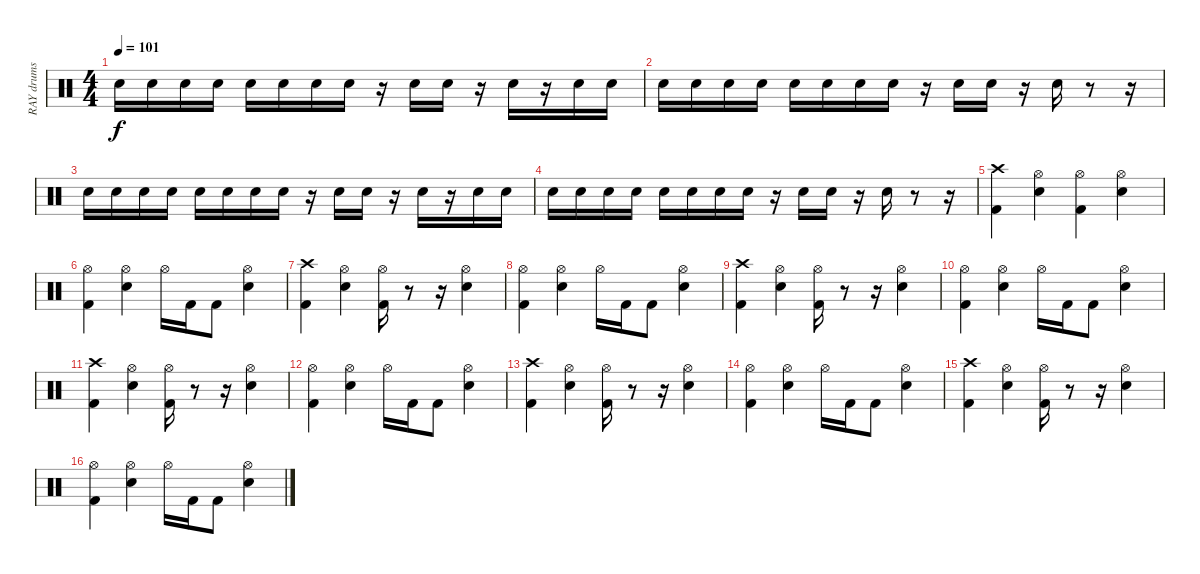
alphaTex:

\track ("RAY drums" "RAY drums") {instrument percussion}
\staff {score}
\articulation defaults
\ts (4 4)
\tempo 101
\clef neutral
\ks c "Electric Snare (hit)".16{dy f} "Electric Snare (hit)".16 "Electric Snare (hit)".16 "Electric Snare (hit)".16 "Electric Snare (hit)".16 "Electric Snare (hit)".16 "Electric Snare (hit)".16 "Electric Snare (hit)".16
r.16 "Electric Snare (hit)".16 "Electric Snare (hit)".16 r.16 "Electric Snare (hit)".16 r.16 "Electric Snare (hit)".16 "Electric Snare (hit)".16 |
"Electric Snare (hit)".16 "Electric Snare (hit)".16 "Electric Snare (hit)".16 "Electric Snare (hit)".16 "Electric Snare (hit)".16 "Electric Snare (hit)".16 "Electric Snare (hit)".16 "Electric Snare (hit)".16 r.16 "Electric Snare (hit)".16 "Electric Snare (hit)".16 r.16 "Electric Snare (hit)".16 r.8 r.16 |
"Electric Snare (hit)".16 "Electric Snare (hit)".16 "Electric Snare (hit)".16 "Electric Snare (hit)".16 "Electric Snare (hit)".16 "Electric Snare (hit)".16 "Electric Snare (hit)".16 "Electric Snare (hit)".16 r.16 "Electric Snare (hit)".16 "Electric Snare (hit)".16 r.16 "Electric Snare (hit)".16 r.16 "Electric Snare (hit)".16 "Electric Snare (hit)".16 |
"Electric Snare (hit)".16 "Electric Snare (hit)".16 "Electric Snare (hit)".16 "Electric Snare (hit)".16 "Electric Snare (hit)".16 "Electric Snare (hit)".16 "Electric Snare (hit)".16 "Electric Snare (hit)".16 r.16 "Electric Snare (hit)".16 "Electric Snare (hit)".16 r.16 "Electric Snare (hit)".16 r.8 r.16 |
("Crash high (hit)" "Kick (hit) 2").4 ("Hi-Hat (open)" "Electric Snare (hit)").4 ("Hi-Hat (open)" "Kick (hit) 2").4 ("Hi-Hat (open)" "Electric Snare (hit)").4 |
("Hi-Hat (open)" "Kick (hit) 2").4 ("Hi-Hat (open)" "Electric Snare (hit)").4 "Hi-Hat (open)".16 "Kick (hit) 2".16 "Kick (hit) 2".8 ("Hi-Hat (open)" "Electric Snare (hit)").4 |
("Kick (hit) 2" "Crash high (hit)").4 ("Electric Snare (hit)" "Hi-Hat (open)").4 ("Kick (hit) 2" "Hi-Hat (open)").16 r.8 r.16 ("Electric Snare (hit)" "Hi-Hat (open)").4 |
("Kick (hit) 2" "Hi-Hat (open)").4 ("Electric Snare (hit)" "Hi-Hat (open)").4 "Hi-Hat (open)".16 "Kick (hit) 2".16 "Kick (hit) 2".8 ("Electric Snare (hit)" "Hi-Hat (open)").4 |
("Crash high (hit)" "Kick (hit) 2").4 ("Hi-Hat (open)" "Electric Snare (hit)").4 ("Hi-Hat (open)" "Kick (hit) 2").16 r.8 r.16 ("Hi-Hat (open)" "Electric Snare (hit)").4 |
("Hi-Hat (open)" "Kick (hit) 2").4 ("Hi-Hat (open)" "Electric Snare (hit)").4 "Hi-Hat (open)".16 "Kick (hit) 2".16 "Kick (hit) 2".8 ("Hi-Hat (open)" "Electric Snare (hit)").4 |
("Kick (hit) 2" "Crash high (hit)").4 ("Electric Snare (hit)" "Hi-Hat (open)").4 ("Kick (hit) 2" "Hi-Hat (open)").16 r.8 r.16 ("Electric Snare (hit)" "Hi-Hat (open)").4 |
("Kick (hit) 2" "Hi-Hat (open)").4 ("Electric Snare (hit)" "Hi-Hat (open)").4 "Hi-Hat (open)".16 "Kick (hit) 2".16 "Kick (hit) 2".8 ("Electric Snare (hit)" "Hi-Hat (open)").4 |
("Crash high (hit)" "Kick (hit) 2").4 ("Hi-Hat (open)" "Electric Snare (hit)").4 ("Hi-Hat (open)" "Kick (hit) 2").16 r.8 r.16 ("Hi-Hat (open)" "Electric Snare (hit)").4 |
("Hi-Hat (open)" "Kick (hit) 2").4 ("Hi-Hat (open)" "Electric Snare (hit)").4 "Hi-Hat (open)".16 "Kick (hit) 2".16 "Kick (hit) 2".8 ("Hi-Hat (open)" "Electric Snare (hit)").4 |
("Kick (hit) 2" "Crash high (hit)").4 ("Electric Snare (hit)" "Hi-Hat (open)").4 ("Kick (hit) 2" "Hi-Hat (open)").16 r.8 r.16 ("Electric Snare (hit)" "Hi-Hat (open)").4 |
("Kick (hit) 2" "Hi-Hat (open)").4 ("Electric Snare (hit)" "Hi-Hat (open)").4 "Hi-Hat (open)".16 "Kick (hit) 2".16 "Kick (hit) 2".8 ("Electric Snare (hit)" "Hi-Hat (open)").4
